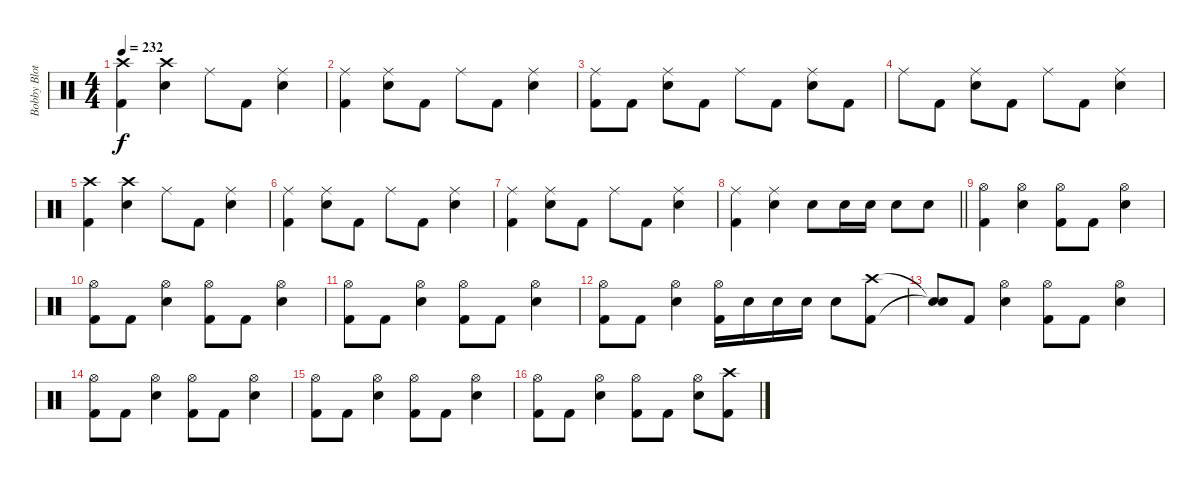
\track ("Bobby Blotzer" "Bobby Blot") {instrument percussion}
\staff {score}
\articulation defaults
\ts (4 4)
\tempo 232
\clef neutral
\ks c
("Crash high (hit)" "Kick (hit) 2").4{dy f} ("Crash high (hit)" "Electric Snare (hit)").4 "Ride (middle)".8 "Kick (hit) 2".8 ("Ride (middle)" "Electric Snare (hit)").4 |
("Ride (middle)" "Kick (hit) 2").4 ("Ride (middle)" "Electric Snare (hit)").8 "Kick (hit) 2".8 "Ride (middle)".8 "Kick (hit) 2".8 ("Ride (middle)" "Electric Snare (hit)").4 |
("Ride (middle)" "Kick (hit) 2").8 "Kick (hit) 2".8 ("Ride (middle)" "Electric Snare (hit)").8 "Kick (hit) 2".8 "Ride (middle)".8 "Kick (hit) 2".8 ("Ride (middle)" "Electric Snare (hit)").8 "Kick (hit) 2".8 |
"Ride (middle)".8 "Kick (hit) 2".8 ("Ride (middle)" "Electric Snare (hit)").8 "Kick (hit) 2".8 "Ride (middle)".8 "Kick (hit) 2".8 ("Ride (middle)" "Electric Snare (hit)").4 |
("Crash high (hit)" "Kick (hit) 2").4 ("Crash high (hit)" "Electric Snare (hit)").4 "Ride (middle)".8 "Kick (hit) 2".8 ("Ride (middle)" "Electric Snare (hit)").4 |
("Ride (middle)" "Kick (hit) 2").4 ("Ride (middle)" "Electric Snare (hit)").8 "Kick (hit) 2".8 "Ride (middle)".8 "Kick (hit) 2".8 ("Ride (middle)" "Electric Snare (hit)").4 |
("Ride (middle)" "Kick (hit) 2").4 ("Ride (middle)" "Electric Snare (hit)").8 "Kick (hit) 2".8 "Ride (middle)".8 "Kick (hit) 2".8 ("Ride (middle)" "Electric Snare (hit)").4 |
\barLineRight lightlight
("Ride (middle)" "Kick (hit) 2").4 ("Ride (middle)" "Electric Snare (hit)").4 "Electric Snare (hit)".8 "Electric Snare (hit)".16 "Electric Snare (hit)".16 "Electric Snare (hit)".8 "Electric Snare (hit)".8 |
("Hi-Hat (open)" "Kick (hit) 2").4 ("Hi-Hat (open)" "Electric Snare (hit)").4 ("Hi-Hat (open)" "Kick (hit) 2").8 "Kick (hit) 2".8 ("Hi-Hat (open)" "Electric Snare (hit)").4 |
("Hi-Hat (open)" "Kick (hit) 2").8 "Kick (hit) 2".8 ("Hi-Hat (open)" "Electric Snare (hit)").4 ("Hi-Hat (open)" "Kick (hit) 2").8 "Kick (hit) 2".8 ("Hi-Hat (open)" "Electric Snare (hit)").4 |
("Hi-Hat (open)" "Kick (hit) 2").8 "Kick (hit) 2".8 ("Hi-Hat (open)" "Electric Snare (hit)").4 ("Hi-Hat (open)" "Kick (hit) 2").8 "Kick (hit) 2".8 ("Hi-Hat (open)" "Electric Snare (hit)").4 |
("Hi-Hat (open)" "Kick (hit) 2").8 "Kick (hit) 2".8 ("Hi-Hat (open)" "Electric Snare (hit)").4 ("Hi-Hat (open)" "Kick (hit) 2").16 "Electric Snare (hit)".16 "Electric Snare (hit)".16 "Electric Snare (hit)".16 "Electric Snare (hit)".8 ("Crash high (hit)" "Kick (hit) 2").8 |
("Snare (hit)"{t} "Snare (hit)"{t}).8 "Kick (hit) 2".8 ("Hi-Hat (open)" "Electric Snare (hit)").4 ("Hi-Hat (open)" "Kick (hit) 2").8 "Kick (hit) 2".8 ("Hi-Hat (open)" "Electric Snare (hit)").4 |
("Hi-Hat (open)" "Kick (hit) 2").8 "Kick (hit) 2".8 ("Hi-Hat (open)" "Electric Snare (hit)").4 ("Hi-Hat (open)" "Kick (hit) 2").8 "Kick (hit) 2".8 ("Hi-Hat (open)" "Electric Snare (hit)").4 |
("Hi-Hat (open)" "Kick (hit) 2").8 "Kick (hit) 2".8 ("Hi-Hat (open)" "Electric Snare (hit)").4 ("Hi-Hat (open)" "Kick (hit) 2").8 "Kick (hit) 2".8 ("Hi-Hat (open)" "Electric Snare (hit)").4 |
("Hi-Hat (open)" "Kick (hit) 2").8 "Kick (hit) 2".8 ("Hi-Hat (open)" "Electric Snare (hit)").4 ("Hi-Hat (open)" "Kick (hit) 2").8 "Kick (hit) 2".8 ("Hi-Hat (open)" "Electric Snare (hit)").8 ("Crash high (hit)" "Kick (hit) 2").8
